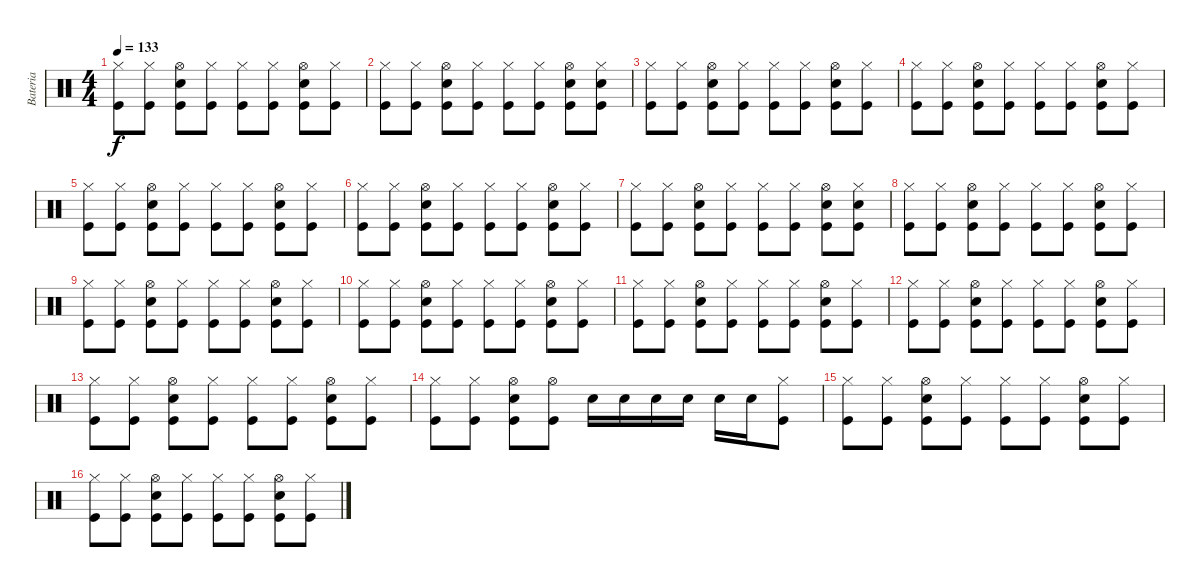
\track ("Bateria" "Bateria") {instrument percussion}
\staff
\articulation defaults
\ts (4 4)
\tempo 133
\clef neutral
\ks c
("Hi-Hat (closed)" "Kick (hit)").8{dy f} ("Hi-Hat (closed)" "Kick (hit)").8 ("Hi-Hat (open)" "Kick (hit)" "Snare (hit) 2").8 ("Hi-Hat (closed)" "Kick (hit)").8 ("Hi-Hat (closed)" "Kick (hit)").8 ("Hi-Hat (closed)" "Kick (hit)").8 ("Hi-Hat (open)" "Kick (hit)" "Snare (hit) 2").8 ("Hi-Hat (closed)" "Kick (hit)").8 |
("Hi-Hat (closed)" "Kick (hit)").8 ("Hi-Hat (closed)" "Kick (hit)").8 ("Hi-Hat (open)" "Kick (hit)" "Snare (hit) 2").8 ("Hi-Hat (closed)" "Kick (hit)").8 ("Hi-Hat (closed)" "Kick (hit)").8 ("Hi-Hat (closed)" "Kick (hit)").8 ("Hi-Hat (open)" "Kick (hit)" "Snare (hit) 2").8 ("Hi-Hat (closed)" "Kick (hit)" "Snare (hit) 2").8 |
("Hi-Hat (closed)" "Kick (hit)").8 ("Hi-Hat (closed)" "Kick (hit)").8 ("Hi-Hat (open)" "Kick (hit)" "Snare (hit) 2").8 ("Hi-Hat (closed)" "Kick (hit)").8 ("Hi-Hat (closed)" "Kick (hit)").8 ("Hi-Hat (closed)" "Kick (hit)").8 ("Hi-Hat (open)" "Kick (hit)" "Snare (hit) 2").8 ("Hi-Hat (closed)" "Kick (hit)").8 |
("Hi-Hat (closed)" "Kick (hit)").8 ("Hi-Hat (closed)" "Kick (hit)").8 ("Hi-Hat (open)" "Kick (hit)" "Snare (hit) 2").8 ("Hi-Hat (closed)" "Kick (hit)").8 ("Hi-Hat (closed)" "Kick (hit)").8 ("Hi-Hat (closed)" "Kick (hit)").8 ("Hi-Hat (open)" "Kick (hit)" "Snare (hit) 2").8 ("Hi-Hat (closed)" "Kick (hit)").8 |
("Hi-Hat (closed)" "Kick (hit)").8 ("Hi-Hat (closed)" "Kick (hit)").8 ("Hi-Hat (open)" "Kick (hit)" "Snare (hit) 2").8 ("Hi-Hat (closed)" "Kick (hit)").8 ("Hi-Hat (closed)" "Kick (hit)").8 ("Hi-Hat (closed)" "Kick (hit)").8 ("Hi-Hat (open)" "Kick (hit)" "Snare (hit) 2").8 ("Hi-Hat (closed)" "Kick (hit)").8 |
("Hi-Hat (closed)" "Kick (hit)").8 ("Hi-Hat (closed)" "Kick (hit)").8 ("Hi-Hat (open)" "Kick (hit)" "Snare (hit) 2").8 ("Hi-Hat (closed)" "Kick (hit)").8 ("Hi-Hat (closed)" "Kick (hit)").8 ("Hi-Hat (closed)" "Kick (hit)").8 ("Hi-Hat (open)" "Kick (hit)" "Snare (hit) 2").8 ("Hi-Hat (closed)" "Kick (hit)").8 |
("Hi-Hat (closed)" "Kick (hit)").8 ("Hi-Hat (closed)" "Kick (hit)").8 ("Hi-Hat (open)" "Kick (hit)" "Snare (hit) 2").8 ("Hi-Hat (closed)" "Kick (hit)").8 ("Hi-Hat (closed)" "Kick (hit)").8 ("Hi-Hat (closed)" "Kick (hit)").8 ("Hi-Hat (open)" "Kick (hit)" "Snare (hit) 2").8 ("Hi-Hat (closed)" "Kick (hit)" "Snare (hit) 2").8 |
("Hi-Hat (closed)" "Kick (hit)").8 ("Hi-Hat (closed)" "Kick (hit)").8 ("Hi-Hat (open)" "Kick (hit)" "Snare (hit) 2").8 ("Hi-Hat (closed)" "Kick (hit)").8 ("Hi-Hat (closed)" "Kick (hit)").8 ("Hi-Hat (closed)" "Kick (hit)").8 ("Hi-Hat (open)" "Kick (hit)" "Snare (hit) 2").8 ("Hi-Hat (closed)" "Kick (hit)").8 |
("Hi-Hat (closed)" "Kick (hit)").8 ("Hi-Hat (closed)" "Kick (hit)").8 ("Hi-Hat (open)" "Kick (hit)" "Snare (hit) 2").8 ("Hi-Hat (closed)" "Kick (hit)").8 ("Hi-Hat (closed)" "Kick (hit)").8 ("Hi-Hat (closed)" "Kick (hit)").8 ("Hi-Hat (open)" "Kick (hit)" "Snare (hit) 2").8 ("Hi-Hat (closed)" "Kick (hit)").8 |
("Hi-Hat (closed)" "Kick (hit)").8 ("Hi-Hat (closed)" "Kick (hit)").8 ("Hi-Hat (open)" "Kick (hit)" "Snare (hit) 2").8 ("Hi-Hat (closed)" "Kick (hit)").8 ("Hi-Hat (closed)" "Kick (hit)").8 ("Hi-Hat (closed)" "Kick (hit)").8 ("Hi-Hat (open)" "Kick (hit)" "Snare (hit) 2").8 ("Hi-Hat (closed)" "Kick (hit)").8 |
("Hi-Hat (closed)" "Kick (hit)").8 ("Hi-Hat (closed)" "Kick (hit)").8 ("Hi-Hat (open)" "Kick (hit)" "Snare (hit) 2").8 ("Hi-Hat (closed)" "Kick (hit)").8 ("Hi-Hat (closed)" "Kick (hit)").8 ("Hi-Hat (closed)" "Kick (hit)").8 ("Hi-Hat (open)" "Kick (hit)" "Snare (hit) 2").8 ("Hi-Hat (closed)" "Kick (hit)").8 |
("Hi-Hat (closed)" "Kick (hit)").8 ("Hi-Hat (closed)" "Kick (hit)").8 ("Hi-Hat (open)" "Kick (hit)" "Snare (hit) 2").8 ("Hi-Hat (closed)" "Kick (hit)").8 ("Hi-Hat (closed)" "Kick (hit)").8 ("Hi-Hat (closed)" "Kick (hit)").8 ("Hi-Hat (open)" "Kick (hit)" "Snare (hit) 2").8 ("Hi-Hat (closed)" "Kick (hit)").8 |
("Hi-Hat (closed)" "Kick (hit)").8 ("Hi-Hat (closed)" "Kick (hit)").8 ("Hi-Hat (open)" "Kick (hit)" "Snare (hit) 2").8 ("Hi-Hat (closed)" "Kick (hit)").8 ("Hi-Hat (closed)" "Kick (hit)").8 ("Hi-Hat (closed)" "Kick (hit)").8 ("Hi-Hat (open)" "Kick (hit)" "Snare (hit) 2").8 ("Hi-Hat (closed)" "Kick (hit)").8 |
("Hi-Hat (closed)" "Kick (hit)").8 ("Hi-Hat (closed)" "Kick (hit)").8 ("Hi-Hat (open)" "Kick (hit)" "Snare (hit) 2").8 ("Hi-Hat (open)" "Kick (hit)").8 "Snare (hit) 2".16 "Snare (hit) 2".16 "Snare (hit) 2".16 "Snare (hit) 2".16 "Snare (hit) 2".16 "Snare (hit) 2".16 ("Hi-Hat (closed)" "Kick (hit)").8 |
("Hi-Hat (closed)" "Kick (hit)").8 ("Hi-Hat (closed)" "Kick (hit)").8 ("Hi-Hat (open)" "Kick (hit)" "Snare (hit) 2").8 ("Hi-Hat (closed)" "Kick (hit)").8 ("Hi-Hat (closed)" "Kick (hit)").8 ("Hi-Hat (closed)" "Kick (hit)").8 ("Hi-Hat (open)" "Kick (hit)" "Snare (hit) 2").8 ("Hi-Hat (closed)" "Kick (hit)").8 |
("Hi-Hat (closed)" "Kick (hit)").8 ("Hi-Hat (closed)" "Kick (hit)").8 ("Hi-Hat (open)" "Kick (hit)" "Snare (hit) 2").8 ("Hi-Hat (closed)" "Kick (hit)").8 ("Hi-Hat (closed)" "Kick (hit)").8 ("Hi-Hat (closed)" "Kick (hit)").8 ("Hi-Hat (open)" "Kick (hit)" "Snare (hit) 2").8 ("Hi-Hat (closed)" "Kick (hit)").8
